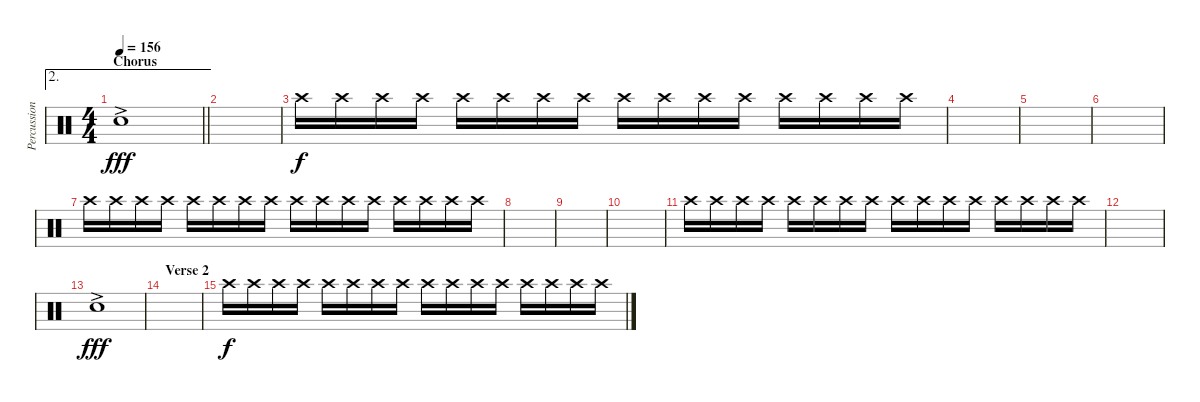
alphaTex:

\track ("Percussion" "Percussion") {instrument percussion}
\staff {score}
\articulation defaults
\ae 2
\ts (4 4)
\section ("" "Chorus")
\tempo 156
\clef neutral
\barLineRight lightlight
\ks c "Hand Clap (hit)"{ac}.1{dy fff volume 16}
|
|
"Crash high (hit)".16{dy f volume 6} "Crash high (hit)".16 "Crash high (hit)".16 "Crash high (hit)".16 "Crash high (hit)".16 "Crash high (hit)".16 "Crash high (hit)".16 "Crash high (hit)".16 "Crash high (hit)".16 "Crash high (hit)".16 "Crash high (hit)".16 "Crash high (hit)".16 "Crash high (hit)".16 "Crash high (hit)".16 "Crash high (hit)".16 "Crash high (hit)".16 |
|
|
|
"Crash high (hit)".16 "Crash high (hit)".16 "Crash high (hit)".16 "Crash high (hit)".16 "Crash high (hit)".16 "Crash high (hit)".16 "Crash high (hit)".16 "Crash high (hit)".16 "Crash high (hit)".16 "Crash high (hit)".16 "Crash high (hit)".16 "Crash high (hit)".16 "Crash high (hit)".16 "Crash high (hit)".16 "Crash high (hit)".16 "Crash high (hit)".16 |
|
|
|
"Crash high (hit)".16{volume 6} "Crash high (hit)".16 "Crash high (hit)".16 "Crash high (hit)".16 "Crash high (hit)".16 "Crash high (hit)".16 "Crash high (hit)".16 "Crash high (hit)".16 "Crash high (hit)".16 "Crash high (hit)".16 "Crash high (hit)".16 "Crash high (hit)".16 "Crash high (hit)".16 "Crash high (hit)".16 "Crash high (hit)".16 "Crash high (hit)".16 |
|
"Hand Clap (hit)"{ac}.1{dy fff volume 16} |
\section ("" "Verse 2")
|
"Crash high (hit)".16{dy f volume 6} "Crash high (hit)".16 "Crash high (hit)".16 "Crash high (hit)".16 "Crash high (hit)".16 "Crash high (hit)".16 "Crash high (hit)".16 "Crash high (hit)".16 "Crash high (hit)".16 "Crash high (hit)".16 "Crash high (hit)".16 "Crash high (hit)".16 "Crash high (hit)".16 "Crash high (hit)".16 "Crash high (hit)".16 "Crash high (hit)".16
